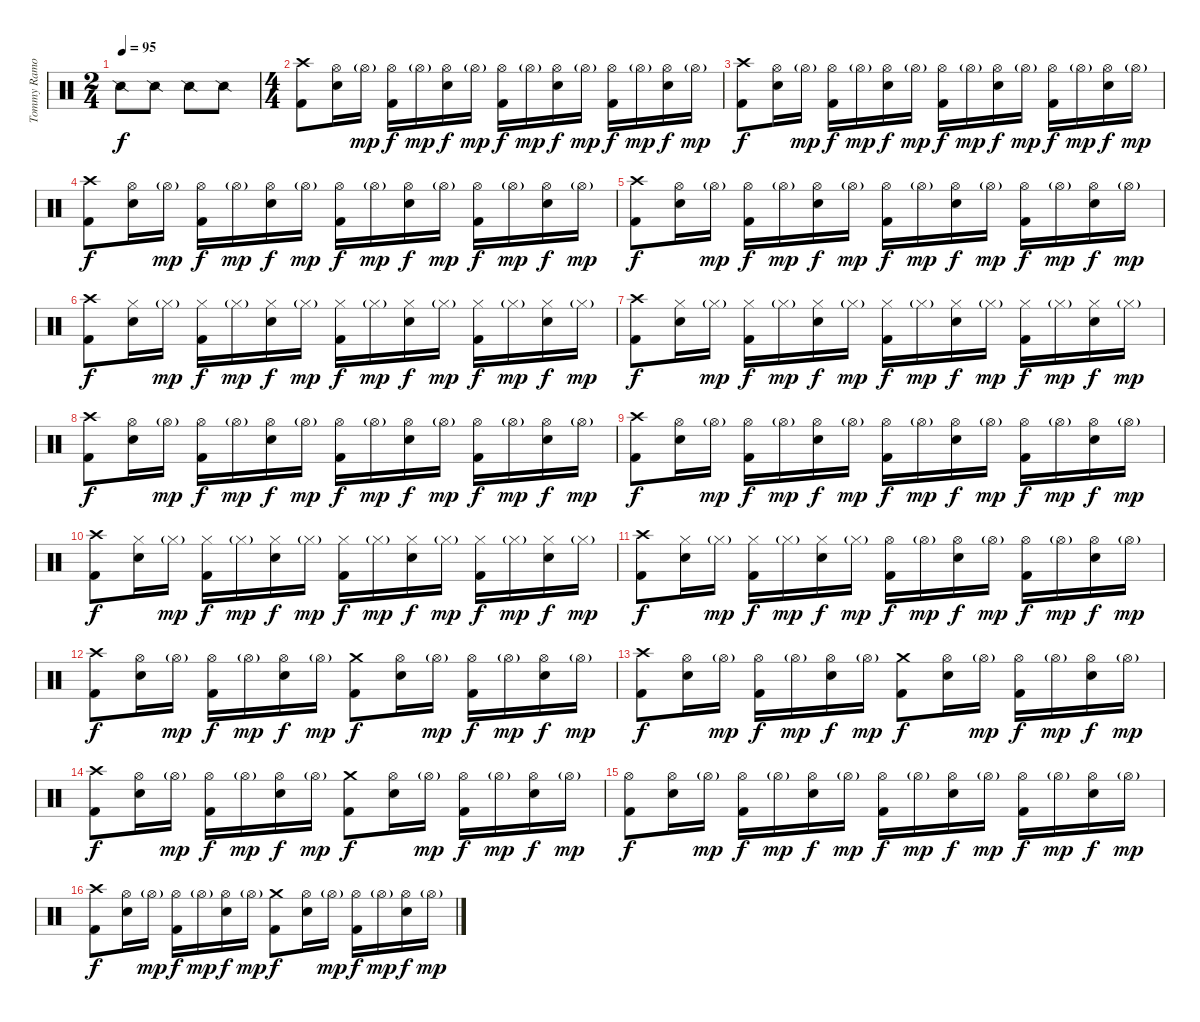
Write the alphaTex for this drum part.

\track ("Tommy Ramone (Drums)" "Tommy Ramo") {instrument percussion}
\staff {score}
\articulation defaults
\ts (2 4)
\tempo 95
\clef neutral
\ks c "Snare (side stick) 2".8{dy f} "Snare (side stick) 2".8 "Snare (side stick) 2".8 "Snare (side stick) 2".8
|
\ts (4 4)
("Crash high (hit)" "Kick (hit) 2").8 ("Hi-Hat (open)" "Snare (hit) 2").16 "Hi-Hat (open)"{g}.16{dy mp} ("Hi-Hat (open)" "Kick (hit) 2").16{dy f} "Hi-Hat (open)"{g}.16{dy mp} ("Hi-Hat (open)" "Snare (hit) 2").16{dy f} "Hi-Hat (open)"{g}.16{dy mp} ("Hi-Hat (open)" "Kick (hit) 2").16{dy f} "Hi-Hat (open)"{g}.16{dy mp} ("Hi-Hat (open)" "Snare (hit) 2").16{dy f} "Hi-Hat (open)"{g}.16{dy mp} ("Hi-Hat (open)" "Kick (hit) 2").16{dy f} "Hi-Hat (open)"{g}.16{dy mp} ("Hi-Hat (open)" "Snare (hit) 2").16{dy f} "Hi-Hat (open)"{g}.16{dy mp} |
("Crash high (hit)" "Kick (hit) 2").8{dy f} ("Hi-Hat (open)" "Snare (hit) 2").16 "Hi-Hat (open)"{g}.16{dy mp} ("Hi-Hat (open)" "Kick (hit) 2").16{dy f} "Hi-Hat (open)"{g}.16{dy mp} ("Hi-Hat (open)" "Snare (hit) 2").16{dy f} "Hi-Hat (open)"{g}.16{dy mp} ("Hi-Hat (open)" "Kick (hit) 2").16{dy f} "Hi-Hat (open)"{g}.16{dy mp} ("Hi-Hat (open)" "Snare (hit) 2").16{dy f} "Hi-Hat (open)"{g}.16{dy mp} ("Hi-Hat (open)" "Kick (hit) 2").16{dy f} "Hi-Hat (open)"{g}.16{dy mp} ("Hi-Hat (open)" "Snare (hit) 2").16{dy f} "Hi-Hat (open)"{g}.16{dy mp} |
("Crash high (hit)" "Kick (hit) 2").8{dy f} ("Hi-Hat (open)" "Snare (hit) 2").16 "Hi-Hat (open)"{g}.16{dy mp} ("Hi-Hat (open)" "Kick (hit) 2").16{dy f} "Hi-Hat (open)"{g}.16{dy mp} ("Hi-Hat (open)" "Snare (hit) 2").16{dy f} "Hi-Hat (open)"{g}.16{dy mp} ("Hi-Hat (open)" "Kick (hit) 2").16{dy f} "Hi-Hat (open)"{g}.16{dy mp} ("Hi-Hat (open)" "Snare (hit) 2").16{dy f} "Hi-Hat (open)"{g}.16{dy mp} ("Hi-Hat (open)" "Kick (hit) 2").16{dy f} "Hi-Hat (open)"{g}.16{dy mp} ("Hi-Hat (open)" "Snare (hit) 2").16{dy f} "Hi-Hat (open)"{g}.16{dy mp} |
("Crash high (hit)" "Kick (hit) 2").8{dy f} ("Hi-Hat (open)" "Snare (hit) 2").16 "Hi-Hat (open)"{g}.16{dy mp} ("Hi-Hat (open)" "Kick (hit) 2").16{dy f} "Hi-Hat (open)"{g}.16{dy mp} ("Hi-Hat (open)" "Snare (hit) 2").16{dy f} "Hi-Hat (open)"{g}.16{dy mp} ("Hi-Hat (open)" "Kick (hit) 2").16{dy f} "Hi-Hat (open)"{g}.16{dy mp} ("Hi-Hat (open)" "Snare (hit) 2").16{dy f} "Hi-Hat (open)"{g}.16{dy mp} ("Hi-Hat (open)" "Kick (hit) 2").16{dy f} "Hi-Hat (open)"{g}.16{dy mp} ("Hi-Hat (open)" "Snare (hit) 2").16{dy f} "Hi-Hat (open)"{g}.16{dy mp} |
("Crash high (hit)" "Kick (hit) 2").8{dy f} ("Hi-Hat (closed)" "Snare (hit) 2").16 "Hi-Hat (closed)"{g}.16{dy mp} ("Hi-Hat (closed)" "Kick (hit) 2").16{dy f} "Hi-Hat (closed)"{g}.16{dy mp} ("Hi-Hat (closed)" "Snare (hit) 2").16{dy f} "Hi-Hat (closed)"{g}.16{dy mp} ("Hi-Hat (closed)" "Kick (hit) 2").16{dy f} "Hi-Hat (closed)"{g}.16{dy mp} ("Hi-Hat (closed)" "Snare (hit) 2").16{dy f} "Hi-Hat (closed)"{g}.16{dy mp} ("Hi-Hat (closed)" "Kick (hit) 2").16{dy f} "Hi-Hat (closed)"{g}.16{dy mp} ("Hi-Hat (closed)" "Snare (hit) 2").16{dy f} "Hi-Hat (closed)"{g}.16{dy mp} |
("Crash high (hit)" "Kick (hit) 2").8{dy f} ("Hi-Hat (closed)" "Snare (hit) 2").16 "Hi-Hat (closed)"{g}.16{dy mp} ("Hi-Hat (closed)" "Kick (hit) 2").16{dy f} "Hi-Hat (closed)"{g}.16{dy mp} ("Hi-Hat (closed)" "Snare (hit) 2").16{dy f} "Hi-Hat (closed)"{g}.16{dy mp} ("Hi-Hat (closed)" "Kick (hit) 2").16{dy f} "Hi-Hat (closed)"{g}.16{dy mp} ("Hi-Hat (closed)" "Snare (hit) 2").16{dy f} "Hi-Hat (closed)"{g}.16{dy mp} ("Hi-Hat (closed)" "Kick (hit) 2").16{dy f} "Hi-Hat (closed)"{g}.16{dy mp} ("Hi-Hat (closed)" "Snare (hit) 2").16{dy f} "Hi-Hat (closed)"{g}.16{dy mp} |
("Crash high (hit)" "Kick (hit) 2").8{dy f} ("Hi-Hat (open)" "Snare (hit) 2").16 "Hi-Hat (open)"{g}.16{dy mp} ("Hi-Hat (open)" "Kick (hit) 2").16{dy f} "Hi-Hat (open)"{g}.16{dy mp} ("Hi-Hat (open)" "Snare (hit) 2").16{dy f} "Hi-Hat (open)"{g}.16{dy mp} ("Hi-Hat (open)" "Kick (hit) 2").16{dy f} "Hi-Hat (open)"{g}.16{dy mp} ("Hi-Hat (open)" "Snare (hit) 2").16{dy f} "Hi-Hat (open)"{g}.16{dy mp} ("Hi-Hat (open)" "Kick (hit) 2").16{dy f} "Hi-Hat (open)"{g}.16{dy mp} ("Hi-Hat (open)" "Snare (hit) 2").16{dy f} "Hi-Hat (open)"{g}.16{dy mp} |
("Crash high (hit)" "Kick (hit) 2").8{dy f} ("Hi-Hat (open)" "Snare (hit) 2").16 "Hi-Hat (open)"{g}.16{dy mp} ("Hi-Hat (open)" "Kick (hit) 2").16{dy f} "Hi-Hat (open)"{g}.16{dy mp} ("Hi-Hat (open)" "Snare (hit) 2").16{dy f} "Hi-Hat (open)"{g}.16{dy mp} ("Hi-Hat (open)" "Kick (hit) 2").16{dy f} "Hi-Hat (open)"{g}.16{dy mp} ("Hi-Hat (open)" "Snare (hit) 2").16{dy f} "Hi-Hat (open)"{g}.16{dy mp} ("Hi-Hat (open)" "Kick (hit) 2").16{dy f} "Hi-Hat (open)"{g}.16{dy mp} ("Hi-Hat (open)" "Snare (hit) 2").16{dy f} "Hi-Hat (open)"{g}.16{dy mp} |
("Crash high (hit)" "Kick (hit) 2").8{dy f} ("Hi-Hat (closed)" "Snare (hit) 2").16 "Hi-Hat (closed)"{g}.16{dy mp} ("Hi-Hat (closed)" "Kick (hit) 2").16{dy f} "Hi-Hat (closed)"{g}.16{dy mp} ("Hi-Hat (closed)" "Snare (hit) 2").16{dy f} "Hi-Hat (closed)"{g}.16{dy mp} ("Hi-Hat (closed)" "Kick (hit) 2").16{dy f} "Hi-Hat (closed)"{g}.16{dy mp} ("Hi-Hat (closed)" "Snare (hit) 2").16{dy f} "Hi-Hat (closed)"{g}.16{dy mp} ("Hi-Hat (closed)" "Kick (hit) 2").16{dy f} "Hi-Hat (closed)"{g}.16{dy mp} ("Hi-Hat (closed)" "Snare (hit) 2").16{dy f} "Hi-Hat (closed)"{g}.16{dy mp} |
("Crash high (hit)" "Kick (hit) 2").8{dy f} ("Hi-Hat (closed)" "Snare (hit) 2").16 "Hi-Hat (closed)"{g}.16{dy mp} ("Hi-Hat (closed)" "Kick (hit) 2").16{dy f} "Hi-Hat (closed)"{g}.16{dy mp} ("Hi-Hat (closed)" "Snare (hit) 2").16{dy f} "Hi-Hat (closed)"{g}.16{dy mp} ("Hi-Hat (open)" "Kick (hit) 2").16{dy f} "Hi-Hat (open)"{g}.16{dy mp} ("Hi-Hat (open)" "Snare (hit) 2").16{dy f} "Hi-Hat (open)"{g}.16{dy mp} ("Hi-Hat (open)" "Kick (hit) 2").16{dy f} "Hi-Hat (open)"{g}.16{dy mp} ("Hi-Hat (open)" "Snare (hit) 2").16{dy f} "Hi-Hat (open)"{g}.16{dy mp} |
("Crash high (hit)" "Kick (hit) 2").8{dy f} ("Hi-Hat (open)" "Snare (hit) 2").16 "Hi-Hat (open)"{g}.16{dy mp} ("Hi-Hat (open)" "Kick (hit) 2").16{dy f} "Hi-Hat (open)"{g}.16{dy mp} ("Hi-Hat (open)" "Snare (hit) 2").16{dy f} "Hi-Hat (open)"{g}.16{dy mp} ("Crash medium (hit)" "Kick (hit) 2").8{dy f} ("Hi-Hat (open)" "Snare (hit) 2").16 "Hi-Hat (open)"{g}.16{dy mp} ("Hi-Hat (open)" "Kick (hit) 2").16{dy f} "Hi-Hat (open)"{g}.16{dy mp} ("Hi-Hat (open)" "Snare (hit) 2").16{dy f} "Hi-Hat (open)"{g}.16{dy mp} |
("Crash high (hit)" "Kick (hit) 2").8{dy f} ("Hi-Hat (open)" "Snare (hit) 2").16 "Hi-Hat (open)"{g}.16{dy mp} ("Hi-Hat (open)" "Kick (hit) 2").16{dy f} "Hi-Hat (open)"{g}.16{dy mp} ("Hi-Hat (open)" "Snare (hit) 2").16{dy f} "Hi-Hat (open)"{g}.16{dy mp} ("Crash medium (hit)" "Kick (hit) 2").8{dy f} ("Hi-Hat (open)" "Snare (hit) 2").16 "Hi-Hat (open)"{g}.16{dy mp} ("Hi-Hat (open)" "Kick (hit) 2").16{dy f} "Hi-Hat (open)"{g}.16{dy mp} ("Hi-Hat (open)" "Snare (hit) 2").16{dy f} "Hi-Hat (open)"{g}.16{dy mp} |
("Crash high (hit)" "Kick (hit) 2").8{dy f} ("Hi-Hat (open)" "Snare (hit) 2").16 "Hi-Hat (open)"{g}.16{dy mp} ("Hi-Hat (open)" "Kick (hit) 2").16{dy f} "Hi-Hat (open)"{g}.16{dy mp} ("Hi-Hat (open)" "Snare (hit) 2").16{dy f} "Hi-Hat (open)"{g}.16{dy mp} ("Crash medium (hit)" "Kick (hit) 2").8{dy f} ("Hi-Hat (open)" "Snare (hit) 2").16 "Hi-Hat (open)"{g}.16{dy mp} ("Hi-Hat (open)" "Kick (hit) 2").16{dy f} "Hi-Hat (open)"{g}.16{dy mp} ("Hi-Hat (open)" "Snare (hit) 2").16{dy f} "Hi-Hat (open)"{g}.16{dy mp} |
("Hi-Hat (open)" "Kick (hit) 2").8{dy f} ("Hi-Hat (open)" "Snare (hit) 2").16 "Hi-Hat (open)"{g}.16{dy mp} ("Hi-Hat (open)" "Kick (hit) 2").16{dy f} "Hi-Hat (open)"{g}.16{dy mp} ("Hi-Hat (open)" "Snare (hit) 2").16{dy f} "Hi-Hat (open)"{g}.16{dy mp} ("Hi-Hat (open)" "Kick (hit) 2").16{dy f} "Hi-Hat (open)"{g}.16{dy mp} ("Hi-Hat (open)" "Snare (hit) 2").16{dy f} "Hi-Hat (open)"{g}.16{dy mp} ("Hi-Hat (open)" "Kick (hit) 2").16{dy f} "Hi-Hat (open)"{g}.16{dy mp} ("Hi-Hat (open)" "Snare (hit) 2").16{dy f} "Hi-Hat (open)"{g}.16{dy mp} |
("Crash high (hit)" "Kick (hit) 2").8{dy f} ("Hi-Hat (open)" "Snare (hit) 2").16 "Hi-Hat (open)"{g}.16{dy mp} ("Hi-Hat (open)" "Kick (hit) 2").16{dy f} "Hi-Hat (open)"{g}.16{dy mp} ("Hi-Hat (open)" "Snare (hit) 2").16{dy f} "Hi-Hat (open)"{g}.16{dy mp} ("Crash medium (hit)" "Kick (hit) 2").8{dy f} ("Hi-Hat (open)" "Snare (hit) 2").16 "Hi-Hat (open)"{g}.16{dy mp} ("Hi-Hat (open)" "Kick (hit) 2").16{dy f} "Hi-Hat (open)"{g}.16{dy mp} ("Hi-Hat (open)" "Snare (hit) 2").16{dy f} "Hi-Hat (open)"{g}.16{dy mp}
